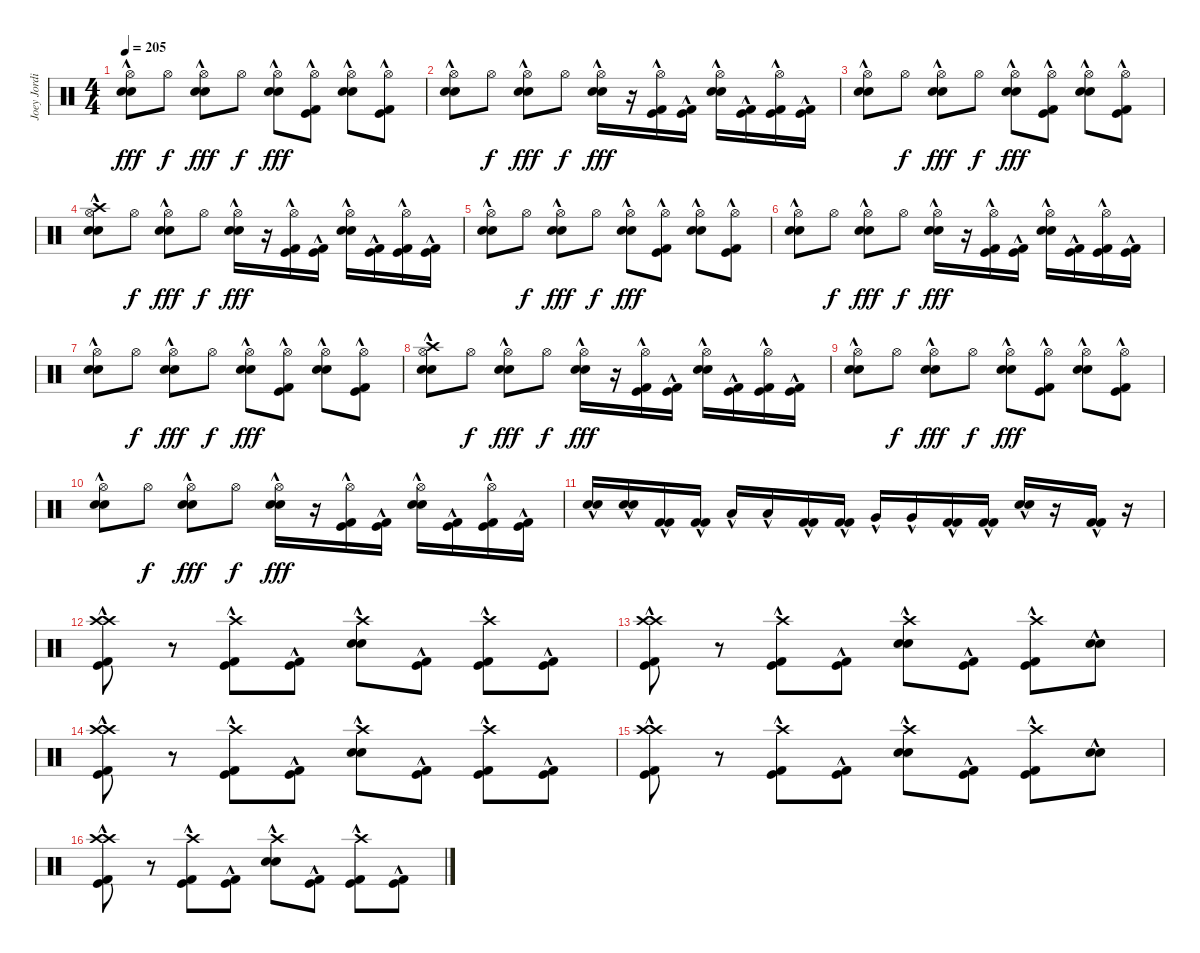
\track ("Joey Jordison" "Joey Jordi") {instrument percussion}
\staff {score}
\articulation defaults
\ts (4 4)
\tempo 205
\clef neutral
\ks c
("Hi-Hat (open)"{hac} "Electric Snare (hit)"{hac} "Electric Snare (hit)"{hac}).8{dy fff} "Hi-Hat (open)".8{dy f} ("Hi-Hat (open)"{hac} "Electric Snare (hit)"{hac} "Electric Snare (hit)"{hac}).8{dy fff} "Hi-Hat (open)".8{dy f} ("Hi-Hat (open)"{hac} "Electric Snare (hit)"{hac} "Electric Snare (hit)"{hac}).8{dy fff} ("Hi-Hat (open)" "Kick (hit)"{hac} "Kick (hit) 2"{hac}).8 ("Hi-Hat (open)"{hac} "Electric Snare (hit)"{hac} "Electric Snare (hit)"{hac}).8 ("Hi-Hat (open)" "Kick (hit)"{hac} "Kick (hit) 2"{hac}).8 |
("Hi-Hat (open)"{hac} "Electric Snare (hit)"{hac} "Electric Snare (hit)"{hac}).8 "Hi-Hat (open)".8{dy f} ("Hi-Hat (open)"{hac} "Electric Snare (hit)"{hac} "Electric Snare (hit)"{hac}).8{dy fff} "Hi-Hat (open)".8{dy f} ("Hi-Hat (open)"{hac} "Electric Snare (hit)"{hac} "Electric Snare (hit)"{hac}).16{dy fff} r.16 ("Hi-Hat (open)" "Kick (hit)"{hac} "Kick (hit) 2"{hac}).16 ("Kick (hit)"{hac} "Kick (hit) 2"{hac}).16 ("Hi-Hat (open)"{hac} "Electric Snare (hit)"{hac} "Electric Snare (hit)"{hac}).16 ("Kick (hit)"{hac} "Kick (hit) 2"{hac}).16 ("Hi-Hat (open)" "Kick (hit)"{hac} "Kick (hit) 2"{hac}).16 ("Kick (hit)"{hac} "Kick (hit) 2"{hac}).16 |
("Hi-Hat (open)"{hac} "Electric Snare (hit)"{hac} "Electric Snare (hit)"{hac}).8 "Hi-Hat (open)".8{dy f} ("Hi-Hat (open)"{hac} "Electric Snare (hit)"{hac} "Electric Snare (hit)"{hac}).8{dy fff} "Hi-Hat (open)".8{dy f} ("Hi-Hat (open)"{hac} "Electric Snare (hit)"{hac} "Electric Snare (hit)"{hac}).8{dy fff} ("Hi-Hat (open)" "Kick (hit)"{hac} "Kick (hit) 2"{hac}).8 ("Hi-Hat (open)"{hac} "Electric Snare (hit)"{hac} "Electric Snare (hit)"{hac}).8 ("Hi-Hat (open)" "Kick (hit)"{hac} "Kick (hit) 2"{hac}).8 |
("Crash high (hit)"{hac} "Hi-Hat (open)"{hac} "Electric Snare (hit)"{hac} "Electric Snare (hit)"{hac}).8 "Hi-Hat (open)".8{dy f} ("Hi-Hat (open)"{hac} "Electric Snare (hit)"{hac} "Electric Snare (hit)"{hac}).8{dy fff} "Hi-Hat (open)".8{dy f} ("Hi-Hat (open)"{hac} "Electric Snare (hit)"{hac} "Electric Snare (hit)"{hac}).16{dy fff} r.16 ("Hi-Hat (open)" "Kick (hit)"{hac} "Kick (hit) 2"{hac}).16 ("Kick (hit)"{hac} "Kick (hit) 2"{hac}).16 ("Hi-Hat (open)"{hac} "Electric Snare (hit)"{hac} "Electric Snare (hit)"{hac}).16 ("Kick (hit)"{hac} "Kick (hit) 2"{hac}).16 ("Hi-Hat (open)" "Kick (hit)"{hac} "Kick (hit) 2"{hac}).16 ("Kick (hit)"{hac} "Kick (hit) 2"{hac}).16 |
("Hi-Hat (open)"{hac} "Electric Snare (hit)"{hac} "Electric Snare (hit)"{hac}).8 "Hi-Hat (open)".8{dy f} ("Hi-Hat (open)"{hac} "Electric Snare (hit)"{hac} "Electric Snare (hit)"{hac}).8{dy fff} "Hi-Hat (open)".8{dy f} ("Hi-Hat (open)"{hac} "Electric Snare (hit)"{hac} "Electric Snare (hit)"{hac}).8{dy fff} ("Hi-Hat (open)" "Kick (hit)"{hac} "Kick (hit) 2"{hac}).8 ("Hi-Hat (open)"{hac} "Electric Snare (hit)"{hac} "Electric Snare (hit)"{hac}).8 ("Hi-Hat (open)" "Kick (hit)"{hac} "Kick (hit) 2"{hac}).8 |
("Hi-Hat (open)"{hac} "Electric Snare (hit)"{hac} "Electric Snare (hit)"{hac}).8 "Hi-Hat (open)".8{dy f} ("Hi-Hat (open)"{hac} "Electric Snare (hit)"{hac} "Electric Snare (hit)"{hac}).8{dy fff} "Hi-Hat (open)".8{dy f} ("Hi-Hat (open)"{hac} "Electric Snare (hit)"{hac} "Electric Snare (hit)"{hac}).16{dy fff} r.16 ("Hi-Hat (open)" "Kick (hit)"{hac} "Kick (hit) 2"{hac}).16 ("Kick (hit)"{hac} "Kick (hit) 2"{hac}).16 ("Hi-Hat (open)"{hac} "Electric Snare (hit)"{hac} "Electric Snare (hit)"{hac}).16 ("Kick (hit)"{hac} "Kick (hit) 2"{hac}).16 ("Hi-Hat (open)" "Kick (hit)"{hac} "Kick (hit) 2"{hac}).16 ("Kick (hit)"{hac} "Kick (hit) 2"{hac}).16 |
("Hi-Hat (open)"{hac} "Electric Snare (hit)"{hac} "Electric Snare (hit)"{hac}).8 "Hi-Hat (open)".8{dy f} ("Hi-Hat (open)"{hac} "Electric Snare (hit)"{hac} "Electric Snare (hit)"{hac}).8{dy fff} "Hi-Hat (open)".8{dy f} ("Hi-Hat (open)"{hac} "Electric Snare (hit)"{hac} "Electric Snare (hit)"{hac}).8{dy fff} ("Hi-Hat (open)" "Kick (hit)"{hac} "Kick (hit) 2"{hac}).8 ("Hi-Hat (open)"{hac} "Electric Snare (hit)"{hac} "Electric Snare (hit)"{hac}).8 ("Hi-Hat (open)" "Kick (hit)"{hac} "Kick (hit) 2"{hac}).8 |
("Crash high (hit)"{hac} "Hi-Hat (open)"{hac} "Electric Snare (hit)"{hac} "Electric Snare (hit)"{hac}).8 "Hi-Hat (open)".8{dy f} ("Hi-Hat (open)"{hac} "Electric Snare (hit)"{hac} "Electric Snare (hit)"{hac}).8{dy fff} "Hi-Hat (open)".8{dy f} ("Hi-Hat (open)"{hac} "Electric Snare (hit)"{hac} "Electric Snare (hit)"{hac}).16{dy fff} r.16 ("Hi-Hat (open)" "Kick (hit)"{hac} "Kick (hit) 2"{hac}).16 ("Kick (hit)"{hac} "Kick (hit) 2"{hac}).16 ("Hi-Hat (open)"{hac} "Electric Snare (hit)"{hac} "Electric Snare (hit)"{hac}).16 ("Kick (hit)"{hac} "Kick (hit) 2"{hac}).16 ("Hi-Hat (open)" "Kick (hit)"{hac} "Kick (hit) 2"{hac}).16 ("Kick (hit)"{hac} "Kick (hit) 2"{hac}).16 |
("Hi-Hat (open)"{hac} "Electric Snare (hit)"{hac} "Electric Snare (hit)"{hac}).8 "Hi-Hat (open)".8{dy f} ("Hi-Hat (open)"{hac} "Electric Snare (hit)"{hac} "Electric Snare (hit)"{hac}).8{dy fff} "Hi-Hat (open)".8{dy f} ("Hi-Hat (open)"{hac} "Electric Snare (hit)"{hac} "Electric Snare (hit)"{hac}).8{dy fff} ("Hi-Hat (open)" "Kick (hit)"{hac} "Kick (hit) 2"{hac}).8 ("Hi-Hat (open)"{hac} "Electric Snare (hit)"{hac} "Electric Snare (hit)"{hac}).8 ("Hi-Hat (open)" "Kick (hit)"{hac} "Kick (hit) 2"{hac}).8 |
("Hi-Hat (open)"{hac} "Electric Snare (hit)"{hac} "Electric Snare (hit)"{hac}).8 "Hi-Hat (open)".8{dy f} ("Hi-Hat (open)"{hac} "Electric Snare (hit)"{hac} "Electric Snare (hit)"{hac}).8{dy fff} "Hi-Hat (open)".8{dy f} ("Hi-Hat (open)"{hac} "Electric Snare (hit)"{hac} "Electric Snare (hit)"{hac}).16{dy fff} r.16 ("Hi-Hat (open)" "Kick (hit)"{hac} "Kick (hit) 2"{hac}).16 ("Kick (hit)"{hac} "Kick (hit) 2"{hac}).16 ("Hi-Hat (open)"{hac} "Electric Snare (hit)"{hac} "Electric Snare (hit)"{hac}).16 ("Kick (hit)"{hac} "Kick (hit) 2"{hac}).16 ("Hi-Hat (open)" "Kick (hit)"{hac} "Kick (hit) 2"{hac}).16 ("Kick (hit)"{hac} "Kick (hit) 2"{hac}).16 |
("Electric Snare (hit)"{hac} "Electric Snare (hit)"{hac}).16 ("Electric Snare (hit)"{hac} "Electric Snare (hit)"{hac}).16 ("Kick (hit) 2"{hac} "Kick (hit) 2"{hac}).16 ("Kick (hit) 2"{hac} "Kick (hit) 2"{hac}).16 "Low Tom (hit)"{hac}.16 "Low Tom (hit)"{hac}.16 ("Kick (hit) 2"{hac} "Kick (hit) 2"{hac}).16 ("Kick (hit) 2"{hac} "Kick (hit) 2"{hac}).16 "Very Low Tom (hit)"{hac}.16 "Very Low Tom (hit)"{hac}.16 ("Kick (hit) 2"{hac} "Kick (hit) 2"{hac}).16 ("Kick (hit) 2"{hac} "Kick (hit) 2"{hac}).16 ("Electric Snare (hit)"{hac} "Electric Snare (hit)"{hac}).16 r.16 ("Kick (hit) 2"{hac} "Kick (hit) 2"{hac}).16 r.16 |
("Crash high (hit)"{hac} "Crash high (hit)"{hac} "Kick (hit)"{hac} "Kick (hit) 2"{hac}).8 r.8 ("Crash high (hit)"{hac} "Kick (hit)"{hac} "Kick (hit) 2"{hac}).8 ("Kick (hit)"{hac} "Kick (hit) 2"{hac}).8 ("Crash high (hit)"{hac} "Electric Snare (hit)"{hac} "Electric Snare (hit)"{hac}).8 ("Kick (hit)"{hac} "Kick (hit) 2"{hac}).8 ("Crash high (hit)"{hac} "Kick (hit)"{hac} "Kick (hit) 2"{hac}).8 ("Kick (hit)"{hac} "Kick (hit) 2"{hac}).8 |
("Crash high (hit)"{hac} "Crash high (hit)"{hac} "Kick (hit)"{hac} "Kick (hit) 2"{hac}).8 r.8 ("Crash high (hit)"{hac} "Kick (hit)"{hac} "Kick (hit) 2"{hac}).8 ("Kick (hit)"{hac} "Kick (hit) 2"{hac}).8 ("Crash high (hit)"{hac} "Electric Snare (hit)"{hac} "Electric Snare (hit)"{hac}).8 ("Kick (hit)"{hac} "Kick (hit) 2"{hac}).8 ("Crash high (hit)"{hac} "Kick (hit)"{hac} "Kick (hit) 2"{hac}).8 ("Electric Snare (hit)"{hac} "Electric Snare (hit)"{hac}).8 |
("Crash high (hit)"{hac} "Crash high (hit)"{hac} "Kick (hit)"{hac} "Kick (hit) 2"{hac}).8 r.8 ("Crash high (hit)"{hac} "Kick (hit)"{hac} "Kick (hit) 2"{hac}).8 ("Kick (hit)"{hac} "Kick (hit) 2"{hac}).8 ("Crash high (hit)"{hac} "Electric Snare (hit)"{hac} "Electric Snare (hit)"{hac}).8 ("Kick (hit)"{hac} "Kick (hit) 2"{hac}).8 ("Crash high (hit)"{hac} "Kick (hit)"{hac} "Kick (hit) 2"{hac}).8 ("Kick (hit)"{hac} "Kick (hit) 2"{hac}).8 |
("Crash high (hit)"{hac} "Crash high (hit)"{hac} "Kick (hit)"{hac} "Kick (hit) 2"{hac}).8 r.8 ("Crash high (hit)"{hac} "Kick (hit)"{hac} "Kick (hit) 2"{hac}).8 ("Kick (hit)"{hac} "Kick (hit) 2"{hac}).8 ("Crash high (hit)"{hac} "Electric Snare (hit)"{hac} "Electric Snare (hit)"{hac}).8 ("Kick (hit)"{hac} "Kick (hit) 2"{hac}).8 ("Crash high (hit)"{hac} "Kick (hit)"{hac} "Kick (hit) 2"{hac}).8 ("Electric Snare (hit)"{hac} "Electric Snare (hit)"{hac}).8 |
("Crash high (hit)"{hac} "Crash high (hit)"{hac} "Kick (hit)"{hac} "Kick (hit) 2"{hac}).8 r.8 ("Crash high (hit)"{hac} "Kick (hit)"{hac} "Kick (hit) 2"{hac}).8 ("Kick (hit)"{hac} "Kick (hit) 2"{hac}).8 ("Crash high (hit)"{hac} "Electric Snare (hit)"{hac} "Electric Snare (hit)"{hac}).8 ("Kick (hit)"{hac} "Kick (hit) 2"{hac}).8 ("Crash high (hit)"{hac} "Kick (hit)"{hac} "Kick (hit) 2"{hac}).8 ("Kick (hit)"{hac} "Kick (hit) 2"{hac}).8
